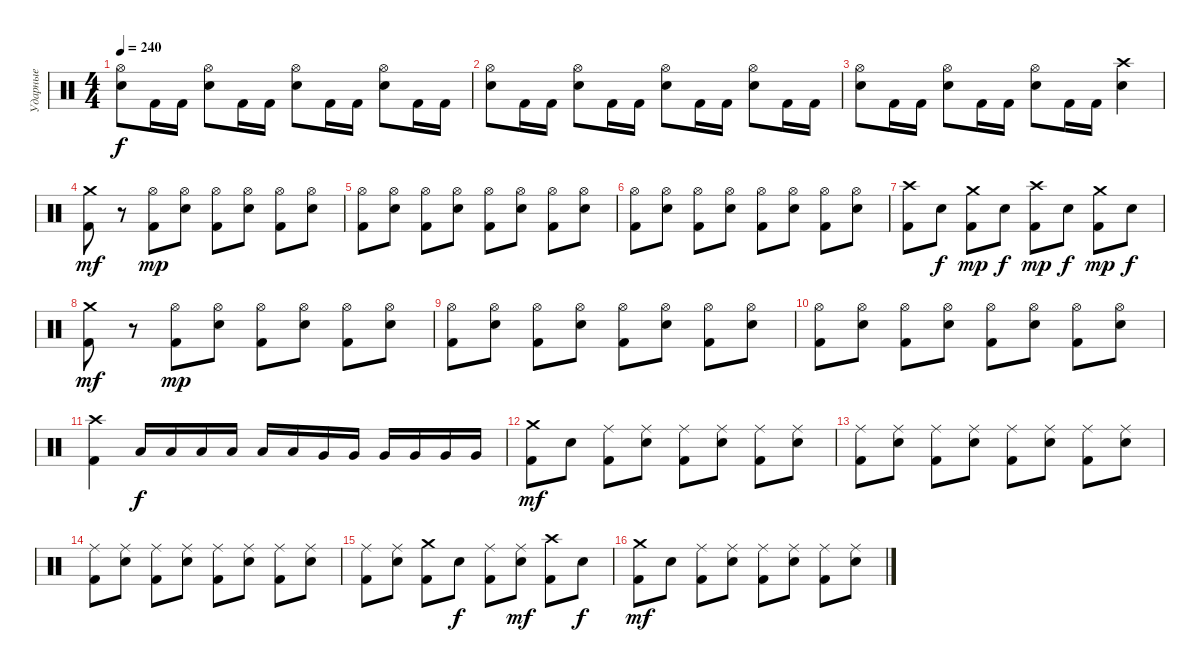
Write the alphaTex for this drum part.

\track ("Ударные" "Ударные") {instrument percussion}
\staff {score}
\articulation defaults
\ts (4 4)
\tempo 240
\clef neutral
\ks c
("Hi-Hat (open)" "Snare (hit) 2").8{dy f} "Kick (hit) 2".16 "Kick (hit) 2".16 ("Hi-Hat (open)" "Snare (hit) 2").8 "Kick (hit) 2".16 "Kick (hit) 2".16 ("Hi-Hat (open)" "Snare (hit) 2").8 "Kick (hit) 2".16 "Kick (hit) 2".16 ("Hi-Hat (open)" "Snare (hit) 2").8 "Kick (hit) 2".16 "Kick (hit) 2".16 |
("Hi-Hat (open)" "Snare (hit) 2").8 "Kick (hit) 2".16 "Kick (hit) 2".16 ("Hi-Hat (open)" "Snare (hit) 2").8 "Kick (hit) 2".16 "Kick (hit) 2".16 ("Hi-Hat (open)" "Snare (hit) 2").8 "Kick (hit) 2".16 "Kick (hit) 2".16 ("Hi-Hat (open)" "Snare (hit) 2").8 "Kick (hit) 2".16 "Kick (hit) 2".16 |
("Hi-Hat (open)" "Snare (hit) 2").8 "Kick (hit) 2".16 "Kick (hit) 2".16 ("Hi-Hat (open)" "Snare (hit) 2").8 "Kick (hit) 2".16 "Kick (hit) 2".16 ("Hi-Hat (open)" "Snare (hit) 2").8 "Kick (hit) 2".16 "Kick (hit) 2".16 ("Crash high (hit)" "Snare (hit) 2").4 |
("Crash medium (hit)" "Kick (hit) 2").8{dy mf} r.8 ("Hi-Hat (open)" "Kick (hit) 2").8{dy mp} ("Hi-Hat (open)" "Snare (hit) 2").8 ("Hi-Hat (open)" "Kick (hit) 2").8 ("Hi-Hat (open)" "Snare (hit) 2").8 ("Hi-Hat (open)" "Kick (hit) 2").8 ("Hi-Hat (open)" "Snare (hit) 2").8 |
("Hi-Hat (open)" "Kick (hit) 2").8 ("Hi-Hat (open)" "Snare (hit) 2").8 ("Hi-Hat (open)" "Kick (hit) 2").8 ("Hi-Hat (open)" "Snare (hit) 2").8 ("Hi-Hat (open)" "Kick (hit) 2").8 ("Hi-Hat (open)" "Snare (hit) 2").8 ("Hi-Hat (open)" "Kick (hit) 2").8 ("Hi-Hat (open)" "Snare (hit) 2").8 |
("Hi-Hat (open)" "Kick (hit) 2").8 ("Hi-Hat (open)" "Snare (hit) 2").8 ("Hi-Hat (open)" "Kick (hit) 2").8 ("Hi-Hat (open)" "Snare (hit) 2").8 ("Hi-Hat (open)" "Kick (hit) 2").8 ("Hi-Hat (open)" "Snare (hit) 2").8 ("Hi-Hat (open)" "Kick (hit) 2").8 ("Hi-Hat (open)" "Snare (hit) 2").8 |
("Crash high (hit)" "Kick (hit) 2").8 "Snare (hit) 2".8{dy f} ("Crash medium (hit)" "Kick (hit) 2").8{dy mp} "Snare (hit) 2".8{dy f} ("Crash high (hit)" "Kick (hit) 2").8{dy mp} "Snare (hit) 2".8{dy f} ("Crash medium (hit)" "Kick (hit) 2").8{dy mp} "Snare (hit) 2".8{dy f} |
("Crash medium (hit)" "Kick (hit) 2").8{dy mf} r.8 ("Hi-Hat (open)" "Kick (hit) 2").8{dy mp} ("Hi-Hat (open)" "Snare (hit) 2").8 ("Hi-Hat (open)" "Kick (hit) 2").8 ("Hi-Hat (open)" "Snare (hit) 2").8 ("Hi-Hat (open)" "Kick (hit) 2").8 ("Hi-Hat (open)" "Snare (hit) 2").8 |
("Hi-Hat (open)" "Kick (hit) 2").8 ("Hi-Hat (open)" "Snare (hit) 2").8 ("Hi-Hat (open)" "Kick (hit) 2").8 ("Hi-Hat (open)" "Snare (hit) 2").8 ("Hi-Hat (open)" "Kick (hit) 2").8 ("Hi-Hat (open)" "Snare (hit) 2").8 ("Hi-Hat (open)" "Kick (hit) 2").8 ("Hi-Hat (open)" "Snare (hit) 2").8 |
("Hi-Hat (open)" "Kick (hit) 2").8 ("Hi-Hat (open)" "Snare (hit) 2").8 ("Hi-Hat (open)" "Kick (hit) 2").8 ("Hi-Hat (open)" "Snare (hit) 2").8 ("Hi-Hat (open)" "Kick (hit) 2").8 ("Hi-Hat (open)" "Snare (hit) 2").8 ("Hi-Hat (open)" "Kick (hit) 2").8 ("Hi-Hat (open)" "Snare (hit) 2").8 |
("Crash high (hit)" "Kick (hit) 2").4 "Low Tom (hit)".16{dy f} "Low Tom (hit)".16 "Low Tom (hit)".16 "Low Tom (hit)".16 "Low Tom (hit)".16 "Low Tom (hit)".16 "Very Low Tom (hit)".16 "Very Low Tom (hit)".16 "Very Low Tom (hit)".16 "Very Low Tom (hit)".16 "Very Low Tom (hit)".16 "Very Low Tom (hit)".16 |
("Crash medium (hit)" "Kick (hit) 2").8{dy mf} "Snare (hit) 2".8 ("Ride (middle)" "Kick (hit) 2").8 ("Ride (middle)" "Snare (hit) 2").8 ("Ride (middle)" "Kick (hit) 2").8 ("Ride (middle)" "Snare (hit) 2").8 ("Ride (middle)" "Kick (hit) 2").8 ("Ride (middle)" "Snare (hit) 2").8 |
("Ride (middle)" "Kick (hit) 2").8 ("Ride (middle)" "Snare (hit) 2").8 ("Ride (middle)" "Kick (hit) 2").8 ("Ride (middle)" "Snare (hit) 2").8 ("Ride (middle)" "Kick (hit) 2").8 ("Ride (middle)" "Snare (hit) 2").8 ("Ride (middle)" "Kick (hit) 2").8 ("Ride (middle)" "Snare (hit) 2").8 |
("Ride (middle)" "Kick (hit) 2").8 ("Ride (middle)" "Snare (hit) 2").8 ("Ride (middle)" "Kick (hit) 2").8 ("Ride (middle)" "Snare (hit) 2").8 ("Ride (middle)" "Kick (hit) 2").8 ("Ride (middle)" "Snare (hit) 2").8 ("Ride (middle)" "Kick (hit) 2").8 ("Ride (middle)" "Snare (hit) 2").8 |
("Ride (middle)" "Kick (hit) 2").8 ("Ride (middle)" "Snare (hit) 2").8 ("Crash medium (hit)" "Kick (hit) 2").8 "Snare (hit) 2".8{dy f} ("Ride (middle)" "Kick (hit) 2").8 ("Ride (middle)" "Snare (hit) 2").8{dy mf} ("Crash high (hit)" "Kick (hit) 2").8 "Snare (hit) 2".8{dy f} |
("Crash medium (hit)" "Kick (hit) 2").8{dy mf} "Snare (hit) 2".8 ("Ride (middle)" "Kick (hit) 2").8 ("Ride (middle)" "Snare (hit) 2").8 ("Ride (middle)" "Kick (hit) 2").8 ("Ride (middle)" "Snare (hit) 2").8 ("Ride (middle)" "Kick (hit) 2").8 ("Ride (middle)" "Snare (hit) 2").8
